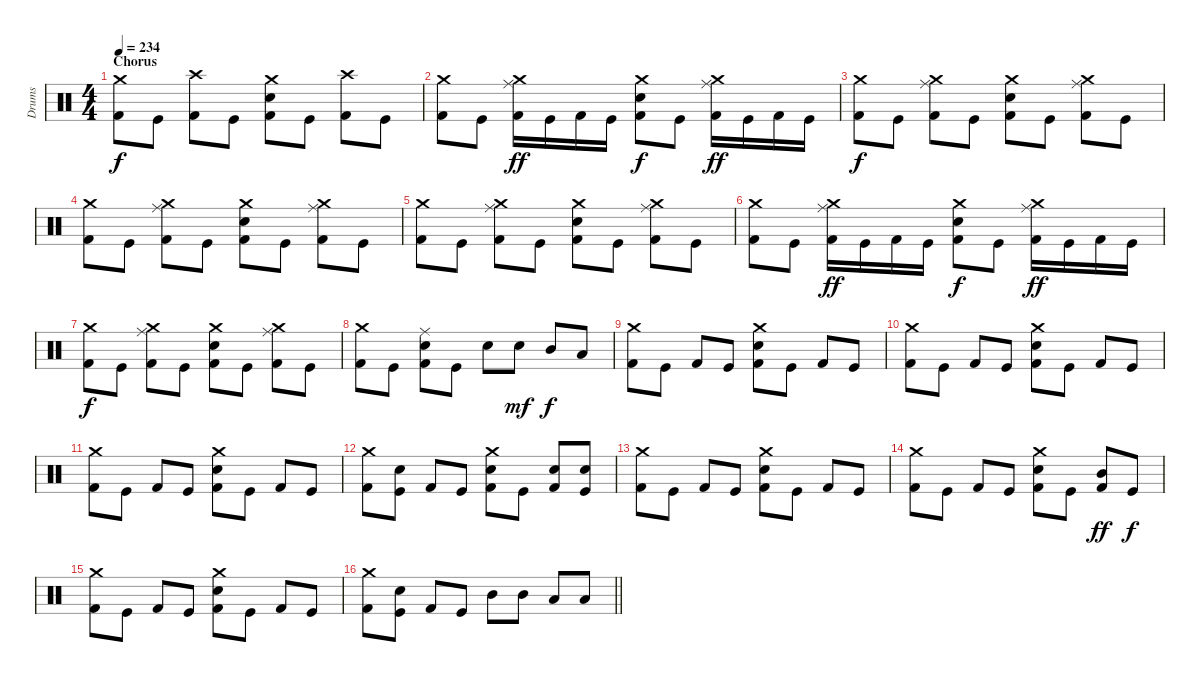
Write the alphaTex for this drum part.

\track ("Drums" "Drums") {instrument percussion}
\staff {score}
\articulation defaults
\ts (4 4)
\section ("" "Chorus")
\tempo 234
\clef neutral
\ks c
("Crash medium (hit)" "Kick (hit) 2").8{dy f} "Kick (hit)".8 ("Crash high (hit)" "Kick (hit) 2").8 "Kick (hit)".8 ("Crash medium (hit)" "Snare (hit) 2" "Kick (hit) 2").8 "Kick (hit)".8 ("Crash high (hit)" "Kick (hit) 2").8 "Kick (hit)".8 |
("Crash medium (hit)" "Kick (hit) 2").8 "Kick (hit)".8 ("Crash medium (hit)" "Ride (middle)" "Kick (hit) 2").16{dy ff} "Kick (hit)".16 "Kick (hit) 2".16 "Kick (hit)".16 ("Crash medium (hit)" "Snare (hit) 2" "Kick (hit) 2").8{dy f} "Kick (hit)".8 ("Crash medium (hit)" "Ride (middle)" "Kick (hit) 2").16{dy ff} "Kick (hit)".16 "Kick (hit) 2".16 "Kick (hit)".16 |
("Crash medium (hit)" "Kick (hit) 2").8{dy f} "Kick (hit)".8 ("Crash medium (hit)" "Ride (middle)" "Kick (hit) 2").8 "Kick (hit)".8 ("Crash medium (hit)" "Snare (hit) 2" "Kick (hit) 2").8 "Kick (hit)".8 ("Crash medium (hit)" "Ride (middle)" "Kick (hit) 2").8 "Kick (hit)".8 |
("Crash medium (hit)" "Kick (hit) 2").8 "Kick (hit)".8 ("Crash medium (hit)" "Ride (middle)" "Kick (hit) 2").8 "Kick (hit)".8 ("Crash medium (hit)" "Snare (hit) 2" "Kick (hit) 2").8 "Kick (hit)".8 ("Crash medium (hit)" "Ride (middle)" "Kick (hit) 2").8 "Kick (hit)".8 |
("Crash medium (hit)" "Kick (hit) 2").8 "Kick (hit)".8 ("Crash medium (hit)" "Ride (middle)" "Kick (hit) 2").8 "Kick (hit)".8 ("Crash medium (hit)" "Snare (hit) 2" "Kick (hit) 2").8 "Kick (hit)".8 ("Crash medium (hit)" "Ride (middle)" "Kick (hit) 2").8 "Kick (hit)".8 |
("Crash medium (hit)" "Kick (hit) 2").8 "Kick (hit)".8 ("Crash medium (hit)" "Ride (middle)" "Kick (hit) 2").16{dy ff} "Kick (hit)".16 "Kick (hit) 2".16 "Kick (hit)".16 ("Crash medium (hit)" "Snare (hit) 2" "Kick (hit) 2").8{dy f} "Kick (hit)".8 ("Crash medium (hit)" "Ride (middle)" "Kick (hit) 2").16{dy ff} "Kick (hit)".16 "Kick (hit) 2".16 "Kick (hit)".16 |
("Crash medium (hit)" "Kick (hit) 2").8{dy f} "Kick (hit)".8 ("Crash medium (hit)" "Ride (middle)" "Kick (hit) 2").8 "Kick (hit)".8 ("Crash medium (hit)" "Snare (hit) 2" "Kick (hit) 2").8 "Kick (hit)".8 ("Crash medium (hit)" "Ride (middle)" "Kick (hit) 2").8 "Kick (hit)".8 |
("Crash medium (hit)" "Kick (hit) 2").8 "Kick (hit)".8 ("Ride (middle)" "Snare (hit) 2" "Kick (hit) 2").8 "Kick (hit)".8 "Snare (hit) 2".8 "Snare (hit) 2".8{dy mf} "Mid Tom (hit)".8{dy f} "Low Tom (hit)".8 |
("Crash medium (hit)" "Kick (hit) 2").8 "Kick (hit)".8 "Kick (hit) 2".8 "Kick (hit)".8 ("Crash medium (hit)" "Snare (hit) 2" "Kick (hit) 2").8 "Kick (hit)".8 "Kick (hit) 2".8 "Kick (hit)".8 |
("Crash medium (hit)" "Kick (hit) 2").8 "Kick (hit)".8 "Kick (hit) 2".8 "Kick (hit)".8 ("Crash medium (hit)" "Snare (hit) 2" "Kick (hit) 2").8 "Kick (hit)".8 "Kick (hit) 2".8 "Kick (hit)".8 |
("Crash medium (hit)" "Kick (hit) 2").8 "Kick (hit)".8 "Kick (hit) 2".8 "Kick (hit)".8 ("Crash medium (hit)" "Snare (hit) 2" "Kick (hit) 2").8 "Kick (hit)".8 "Kick (hit) 2".8 "Kick (hit)".8 |
("Crash medium (hit)" "Kick (hit) 2").8 ("Snare (hit) 2" "Kick (hit)").8 "Kick (hit) 2".8 "Kick (hit)".8 ("Crash medium (hit)" "Snare (hit) 2" "Kick (hit) 2").8 "Kick (hit)".8 ("Snare (hit) 2" "Kick (hit) 2").8 ("Snare (hit) 2" "Kick (hit)").8 |
("Crash medium (hit)" "Kick (hit) 2").8 "Kick (hit)".8 "Kick (hit) 2".8 "Kick (hit)".8 ("Crash medium (hit)" "Snare (hit) 2" "Kick (hit) 2").8 "Kick (hit)".8 "Kick (hit) 2".8 "Kick (hit)".8 |
("Crash medium (hit)" "Kick (hit) 2").8 "Kick (hit)".8 "Kick (hit) 2".8 "Kick (hit)".8 ("Crash medium (hit)" "Snare (hit) 2" "Kick (hit) 2").8 "Kick (hit)".8 ("Mid Tom (hit)" "Kick (hit) 2").8{dy ff} "Kick (hit)".8{dy f} |
("Crash medium (hit)" "Kick (hit) 2").8 "Kick (hit)".8 "Kick (hit) 2".8 "Kick (hit)".8 ("Crash medium (hit)" "Snare (hit) 2" "Kick (hit) 2").8 "Kick (hit)".8 "Kick (hit) 2".8 "Kick (hit)".8 |
\barLineRight lightlight
("Crash medium (hit)" "Kick (hit) 2").8 ("Snare (hit) 2" "Kick (hit)").8 "Kick (hit) 2".8 "Kick (hit)".8 "Mid Tom (hit)".8 "Mid Tom (hit)".8 "Low Tom (hit)".8 "Low Tom (hit)".8
